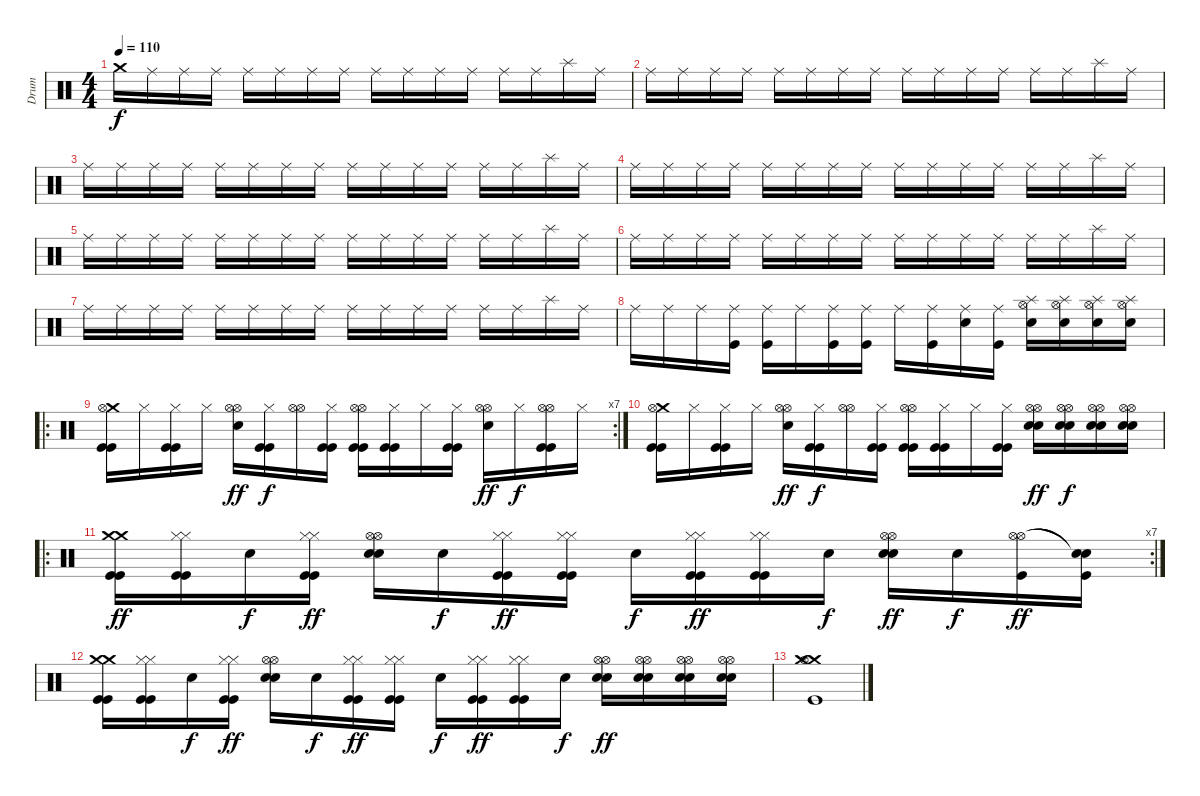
\track ("Drum" "Drum") {instrument percussion}
\staff {score}
\articulation defaults
\ts (4 4)
\tempo 110
\clef neutral
\ks c "Crash medium (hit)".16{dy f} "Ride (middle)".16 "Ride (middle)".16 "Ride (middle)".16 "Ride (middle)".16 "Ride (middle)".16 "Ride (middle)".16 "Ride (middle)".16 "Ride (middle)".16 "Ride (middle)".16 "Ride (middle)".16 "Ride (middle)".16 "Ride (middle)".16 "Ride (middle)".16 "Splash (hit)".16 "Ride (middle)".16
|
"Ride (middle)".16 "Ride (middle)".16 "Ride (middle)".16 "Ride (middle)".16 "Ride (middle)".16 "Ride (middle)".16 "Ride (middle)".16 "Ride (middle)".16 "Ride (middle)".16 "Ride (middle)".16 "Ride (middle)".16 "Ride (middle)".16 "Ride (middle)".16 "Ride (middle)".16 "Splash (hit)".16 "Ride (middle)".16 |
"Ride (middle)".16 "Ride (middle)".16 "Ride (middle)".16 "Ride (middle)".16 "Ride (middle)".16 "Ride (middle)".16 "Ride (middle)".16 "Ride (middle)".16 "Ride (middle)".16 "Ride (middle)".16 "Ride (middle)".16 "Ride (middle)".16 "Ride (middle)".16 "Ride (middle)".16 "Splash (hit)".16 "Ride (middle)".16 |
"Ride (middle)".16 "Ride (middle)".16 "Ride (middle)".16 "Ride (middle)".16 "Ride (middle)".16 "Ride (middle)".16 "Ride (middle)".16 "Ride (middle)".16 "Ride (middle)".16 "Ride (middle)".16 "Ride (middle)".16 "Ride (middle)".16 "Ride (middle)".16 "Ride (middle)".16 "Splash (hit)".16 "Ride (middle)".16 |
"Ride (middle)".16 "Ride (middle)".16 "Ride (middle)".16 "Ride (middle)".16 "Ride (middle)".16 "Ride (middle)".16 "Ride (middle)".16 "Ride (middle)".16 "Ride (middle)".16 "Ride (middle)".16 "Ride (middle)".16 "Ride (middle)".16 "Ride (middle)".16 "Ride (middle)".16 "Splash (hit)".16 "Ride (middle)".16 |
"Ride (middle)".16 "Ride (middle)".16 "Ride (middle)".16 "Ride (middle)".16 "Ride (middle)".16 "Ride (middle)".16 "Ride (middle)".16 "Ride (middle)".16 "Ride (middle)".16 "Ride (middle)".16 "Ride (middle)".16 "Ride (middle)".16 "Ride (middle)".16 "Ride (middle)".16 "Splash (hit)".16 "Ride (middle)".16 |
"Ride (middle)".16 "Ride (middle)".16 "Ride (middle)".16 "Ride (middle)".16 "Ride (middle)".16 "Ride (middle)".16 "Ride (middle)".16 "Ride (middle)".16 "Ride (middle)".16 "Ride (middle)".16 "Ride (middle)".16 "Ride (middle)".16 "Ride (middle)".16 "Ride (middle)".16 "Splash (hit)".16 "Ride (middle)".16 |
"Ride (middle)".16 "Ride (middle)".16 "Ride (middle)".16 ("Ride (middle)" "Kick (hit)").16 ("Ride (middle)" "Kick (hit)").16 "Ride (middle)".16 ("Ride (middle)" "Kick (hit)").16 ("Ride (middle)" "Kick (hit)").16 "Ride (middle)".16 ("Ride (middle)" "Kick (hit)").16 ("Ride (middle)" "Snare (hit) 2").16 ("Ride (middle)" "Kick (hit)").16 ("Splash (hit)" "Hi-Hat (open)" "Snare (hit) 2").16 ("Splash (hit)" "Hi-Hat (open)" "Snare (hit) 2").16 ("Splash (hit)" "Hi-Hat (open)" "Snare (hit) 2").16 ("Splash (hit)" "Hi-Hat (open)" "Snare (hit) 2").16 |
\ro
\rc 7
("Crash medium (hit)" "Hi-Hat (open)" "Kick (hit)" "Kick (hit)").16 "Hi-Hat (closed)".16 ("Hi-Hat (closed)" "Kick (hit)" "Kick (hit)").16 "Hi-Hat (closed)".16 ("Hi-Hat (open)" "Hi-Hat (open)" "Snare (hit) 2").16{dy ff} ("Hi-Hat (closed)" "Kick (hit)" "Kick (hit)").16{dy f} ("Hi-Hat (open)" "Hi-Hat (open)").16 ("Hi-Hat (closed)" "Kick (hit)" "Kick (hit)").16 ("Hi-Hat (open)" "Hi-Hat (open)" "Kick (hit)" "Kick (hit)").16 ("Hi-Hat (closed)" "Kick (hit)" "Kick (hit)").16 "Hi-Hat (closed)".16 ("Hi-Hat (closed)" "Kick (hit)" "Kick (hit)").16 ("Hi-Hat (open)" "Hi-Hat (open)" "Snare (hit) 2").16{dy ff} "Hi-Hat (closed)".16{dy f} ("Hi-Hat (open)" "Hi-Hat (open)" "Kick (hit)" "Kick (hit)").16 "Hi-Hat (closed)".16 |
("Crash medium (hit)" "Hi-Hat (open)" "Kick (hit)" "Kick (hit)").16 "Hi-Hat (closed)".16 ("Hi-Hat (closed)" "Kick (hit)" "Kick (hit)").16 "Hi-Hat (closed)".16 ("Hi-Hat (open)" "Hi-Hat (open)" "Snare (hit) 2").16{dy ff} ("Hi-Hat (closed)" "Kick (hit)" "Kick (hit)").16{dy f} ("Hi-Hat (open)" "Hi-Hat (open)").16 ("Hi-Hat (closed)" "Kick (hit)" "Kick (hit)").16 ("Hi-Hat (open)" "Hi-Hat (open)" "Kick (hit)" "Kick (hit)").16 ("Hi-Hat (closed)" "Kick (hit)" "Kick (hit)").16 "Hi-Hat (closed)".16 ("Hi-Hat (closed)" "Kick (hit)" "Kick (hit)").16 ("Hi-Hat (open)" "Hi-Hat (open)" "Snare (hit) 2" "Snare (hit) 2").16{dy ff} ("Hi-Hat (open)" "Hi-Hat (open)" "Snare (hit) 2" "Snare (hit) 2").16{dy f} ("Hi-Hat (open)" "Hi-Hat (open)" "Snare (hit) 2" "Snare (hit) 2").16 ("Hi-Hat (open)" "Hi-Hat (open)" "Snare (hit) 2" "Snare (hit) 2").16 |
\ro
\rc 7
("Crash medium (hit)" "Crash medium (hit)" "Kick (hit)" "Kick (hit)").16{dy ff} ("Hi-Hat (closed)" "Hi-Hat (closed)" "Kick (hit)" "Kick (hit)").16 "Snare (hit)".16{dy f} ("Hi-Hat (closed)" "Hi-Hat (closed)" "Kick (hit)" "Kick (hit)").16{dy ff} ("Hi-Hat (open)" "Hi-Hat (open)" "Snare (hit) 2" "Snare (hit) 2").16 "Snare (hit)".16{dy f} ("Hi-Hat (closed)" "Hi-Hat (closed)" "Kick (hit)" "Kick (hit)").16{dy ff} ("Hi-Hat (closed)" "Hi-Hat (closed)" "Kick (hit)" "Kick (hit)").16 "Snare (hit)".16{dy f} ("Hi-Hat (closed)" "Hi-Hat (closed)" "Kick (hit)" "Kick (hit)").16{dy ff} ("Hi-Hat (closed)" "Hi-Hat (closed)" "Kick (hit)" "Kick (hit)").16 "Snare (hit)".16{dy f} ("Hi-Hat (open)" "Hi-Hat (open)" "Snare (hit) 2" "Snare (hit) 2").16{dy ff} "Snare (hit)".16{dy f} ("Hi-Hat (open)" "Hi-Hat (open)" "Kick (hit)").16{dy ff} ("Snare (hit)"{t} "Snare (hit)"{t} "Kick (hit)").16 |
("Crash medium (hit)" "Crash medium (hit)" "Kick (hit)" "Kick (hit)").16 ("Hi-Hat (closed)" "Hi-Hat (closed)" "Kick (hit)" "Kick (hit)").16 "Snare (hit)".16{dy f} ("Hi-Hat (closed)" "Hi-Hat (closed)" "Kick (hit)" "Kick (hit)").16{dy ff} ("Hi-Hat (open)" "Hi-Hat (open)" "Snare (hit) 2" "Snare (hit) 2").16 "Snare (hit)".16{dy f} ("Hi-Hat (closed)" "Hi-Hat (closed)" "Kick (hit)" "Kick (hit)").16{dy ff} ("Hi-Hat (closed)" "Hi-Hat (closed)" "Kick (hit)" "Kick (hit)").16 "Snare (hit)".16{dy f} ("Hi-Hat (closed)" "Hi-Hat (closed)" "Kick (hit)" "Kick (hit)").16{dy ff} ("Hi-Hat (closed)" "Hi-Hat (closed)" "Kick (hit)" "Kick (hit)").16 "Snare (hit)".16{dy f} ("Hi-Hat (open)" "Hi-Hat (open)" "Snare (hit) 2" "Snare (hit) 2").16{dy ff} ("Hi-Hat (open)" "Hi-Hat (open)" "Snare (hit) 2" "Snare (hit) 2").16 ("Hi-Hat (open)" "Hi-Hat (open)" "Snare (hit) 2" "Snare (hit) 2").16 ("Hi-Hat (open)" "Hi-Hat (open)" "Snare (hit) 2" "Snare (hit) 2").16 |
("Crash medium (hit)" "Crash medium (hit)" "Hi-Hat (open)" "Kick (hit)").1
